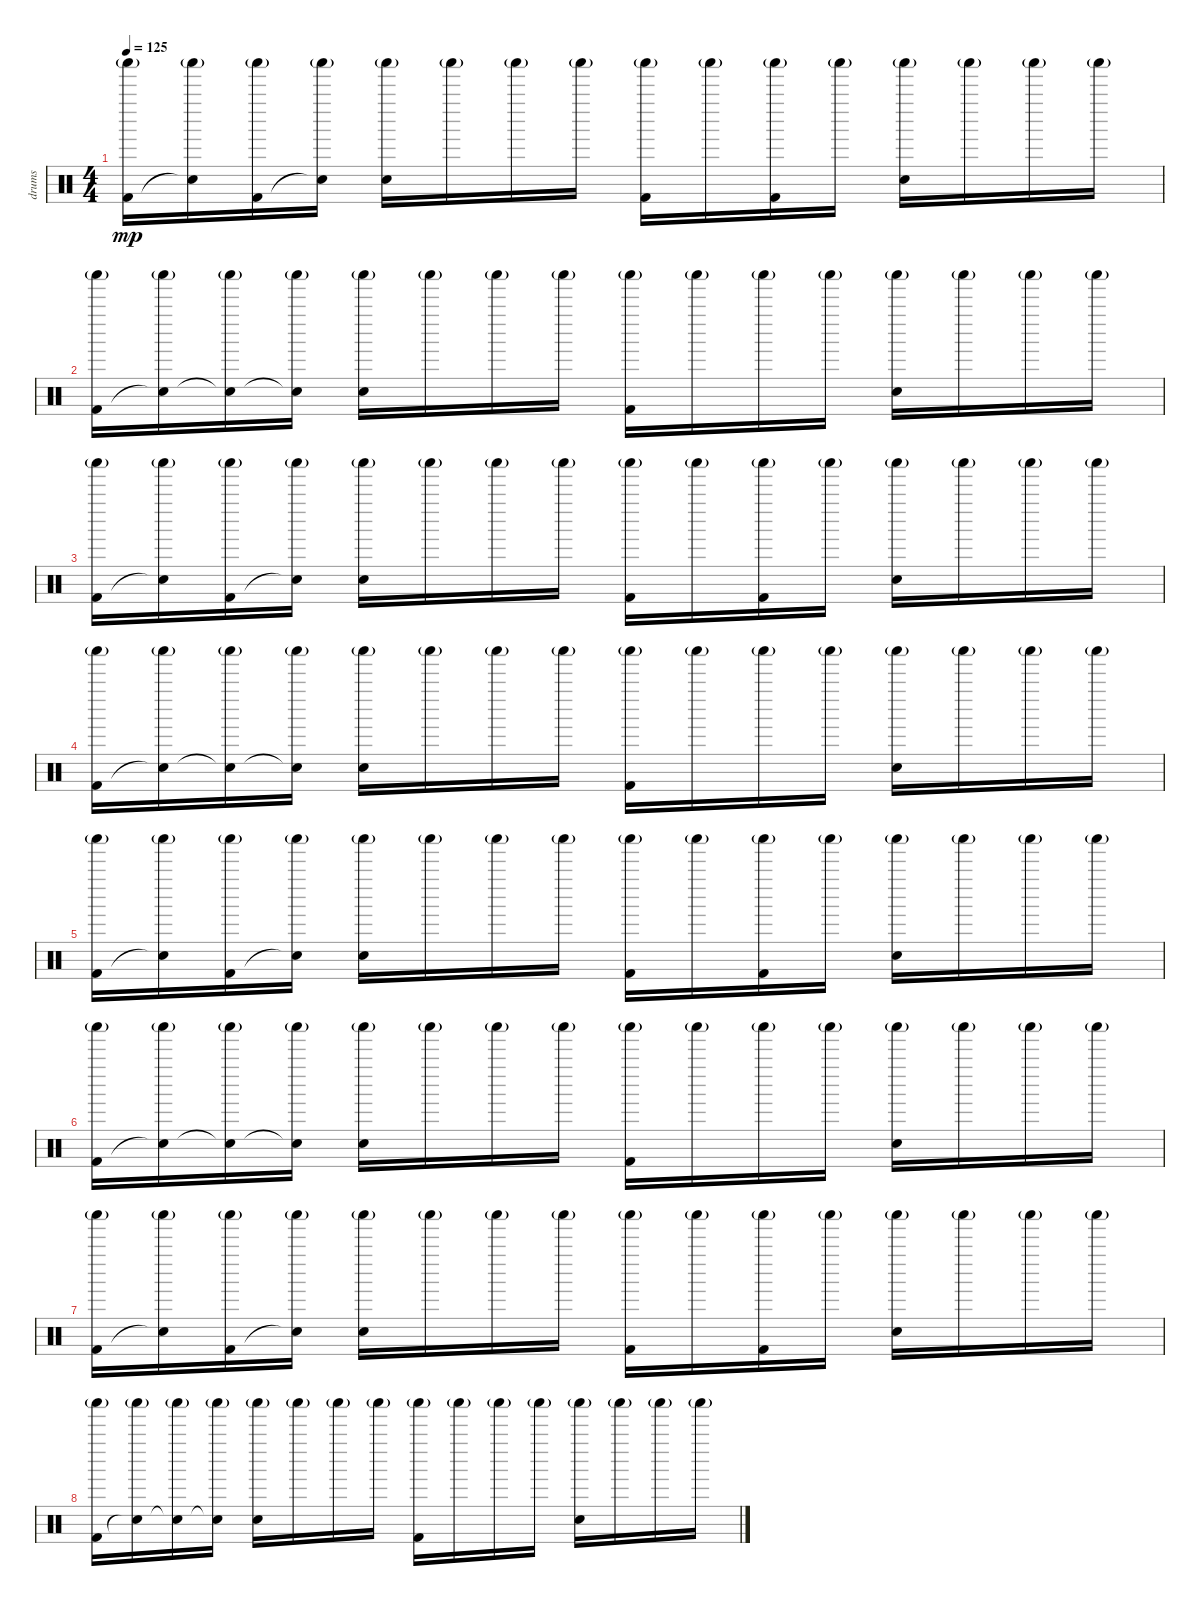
\track ("drums" "drums") {instrument percussion}
\staff {score}
\articulation defaults
\ts (4 4)
\tempo 125
\clef neutral
\ks c
("Shaker (hit)"{g} "Kick (hit) 2").16{dy mp} ("Shaker (hit)"{g} "Snare (hit)"{t}).16 ("Shaker (hit)"{g} "Kick (hit) 2").16 ("Shaker (hit)"{g} "Snare (hit)"{t}).16 ("Shaker (hit)"{g} "Snare (hit) 2").16 "Shaker (hit)"{g}.16 "Shaker (hit)"{g}.16 "Shaker (hit)"{g}.16 ("Shaker (hit)"{g} "Kick (hit) 2").16 "Shaker (hit)"{g}.16 ("Shaker (hit)"{g} "Kick (hit) 2").16 "Shaker (hit)"{g}.16 ("Shaker (hit)"{g} "Snare (hit) 2").16 "Shaker (hit)"{g}.16 "Shaker (hit)"{g}.16 "Shaker (hit)"{g}.16 |
("Shaker (hit)"{g} "Kick (hit) 2").16 ("Shaker (hit)"{g} "Snare (hit)"{t}).16 ("Shaker (hit)"{g} "Snare (hit)"{t}).16 ("Shaker (hit)"{g} "Snare (hit)"{t}).16 ("Shaker (hit)"{g} "Snare (hit) 2").16 "Shaker (hit)"{g}.16 "Shaker (hit)"{g}.16 "Shaker (hit)"{g}.16 ("Shaker (hit)"{g} "Kick (hit) 2").16 "Shaker (hit)"{g}.16 "Shaker (hit)"{g}.16 "Shaker (hit)"{g}.16 ("Shaker (hit)"{g} "Snare (hit) 2").16 "Shaker (hit)"{g}.16 "Shaker (hit)"{g}.16 "Shaker (hit)"{g}.16 |
("Shaker (hit)"{g} "Kick (hit) 2").16 ("Shaker (hit)"{g} "Snare (hit)"{t}).16 ("Shaker (hit)"{g} "Kick (hit) 2").16 ("Shaker (hit)"{g} "Snare (hit)"{t}).16 ("Shaker (hit)"{g} "Snare (hit) 2").16 "Shaker (hit)"{g}.16 "Shaker (hit)"{g}.16 "Shaker (hit)"{g}.16 ("Shaker (hit)"{g} "Kick (hit) 2").16 "Shaker (hit)"{g}.16 ("Shaker (hit)"{g} "Kick (hit) 2").16 "Shaker (hit)"{g}.16 ("Shaker (hit)"{g} "Snare (hit) 2").16 "Shaker (hit)"{g}.16 "Shaker (hit)"{g}.16 "Shaker (hit)"{g}.16 |
("Shaker (hit)"{g} "Kick (hit) 2").16 ("Shaker (hit)"{g} "Snare (hit)"{t}).16 ("Shaker (hit)"{g} "Snare (hit)"{t}).16 ("Shaker (hit)"{g} "Snare (hit)"{t}).16 ("Shaker (hit)"{g} "Snare (hit) 2").16 "Shaker (hit)"{g}.16 "Shaker (hit)"{g}.16 "Shaker (hit)"{g}.16 ("Shaker (hit)"{g} "Kick (hit) 2").16 "Shaker (hit)"{g}.16 "Shaker (hit)"{g}.16 "Shaker (hit)"{g}.16 ("Shaker (hit)"{g} "Snare (hit) 2").16 "Shaker (hit)"{g}.16 "Shaker (hit)"{g}.16 "Shaker (hit)"{g}.16 |
("Shaker (hit)"{g} "Kick (hit) 2").16 ("Shaker (hit)"{g} "Snare (hit)"{t}).16 ("Shaker (hit)"{g} "Kick (hit) 2").16 ("Shaker (hit)"{g} "Snare (hit)"{t}).16 ("Shaker (hit)"{g} "Snare (hit) 2").16 "Shaker (hit)"{g}.16 "Shaker (hit)"{g}.16 "Shaker (hit)"{g}.16 ("Shaker (hit)"{g} "Kick (hit) 2").16 "Shaker (hit)"{g}.16 ("Shaker (hit)"{g} "Kick (hit) 2").16 "Shaker (hit)"{g}.16 ("Shaker (hit)"{g} "Snare (hit) 2").16 "Shaker (hit)"{g}.16 "Shaker (hit)"{g}.16 "Shaker (hit)"{g}.16 |
("Shaker (hit)"{g} "Kick (hit) 2").16 ("Shaker (hit)"{g} "Snare (hit)"{t}).16 ("Shaker (hit)"{g} "Snare (hit)"{t}).16 ("Shaker (hit)"{g} "Snare (hit)"{t}).16 ("Shaker (hit)"{g} "Snare (hit) 2").16 "Shaker (hit)"{g}.16 "Shaker (hit)"{g}.16 "Shaker (hit)"{g}.16 ("Shaker (hit)"{g} "Kick (hit) 2").16 "Shaker (hit)"{g}.16 "Shaker (hit)"{g}.16 "Shaker (hit)"{g}.16 ("Shaker (hit)"{g} "Snare (hit) 2").16 "Shaker (hit)"{g}.16 "Shaker (hit)"{g}.16 "Shaker (hit)"{g}.16 |
("Shaker (hit)"{g} "Kick (hit) 2").16 ("Shaker (hit)"{g} "Snare (hit)"{t}).16 ("Shaker (hit)"{g} "Kick (hit) 2").16 ("Shaker (hit)"{g} "Snare (hit)"{t}).16 ("Shaker (hit)"{g} "Snare (hit) 2").16 "Shaker (hit)"{g}.16 "Shaker (hit)"{g}.16 "Shaker (hit)"{g}.16 ("Shaker (hit)"{g} "Kick (hit) 2").16 "Shaker (hit)"{g}.16 ("Shaker (hit)"{g} "Kick (hit) 2").16 "Shaker (hit)"{g}.16 ("Shaker (hit)"{g} "Snare (hit) 2").16 "Shaker (hit)"{g}.16 "Shaker (hit)"{g}.16 "Shaker (hit)"{g}.16 |
("Shaker (hit)"{g} "Kick (hit) 2").16 ("Shaker (hit)"{g} "Snare (hit)"{t}).16 ("Shaker (hit)"{g} "Snare (hit)"{t}).16 ("Shaker (hit)"{g} "Snare (hit)"{t}).16 ("Shaker (hit)"{g} "Snare (hit) 2").16 "Shaker (hit)"{g}.16 "Shaker (hit)"{g}.16 "Shaker (hit)"{g}.16 ("Shaker (hit)"{g} "Kick (hit) 2").16 "Shaker (hit)"{g}.16 "Shaker (hit)"{g}.16 "Shaker (hit)"{g}.16 ("Shaker (hit)"{g} "Snare (hit) 2").16 "Shaker (hit)"{g}.16 "Shaker (hit)"{g}.16 "Shaker (hit)"{g}.16
